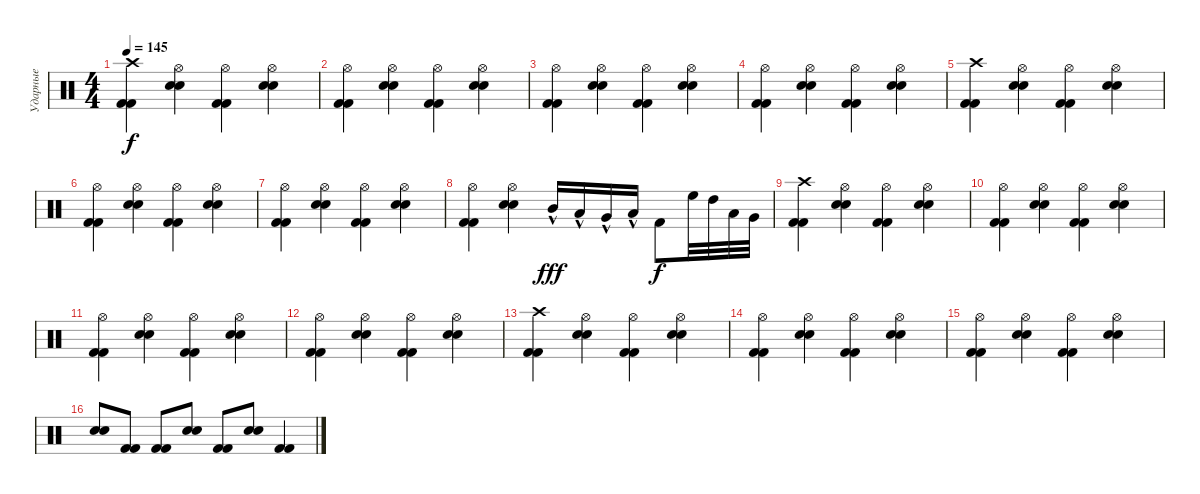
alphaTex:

\track ("Ударные" "Ударные") {instrument percussion}
\staff {score}
\articulation defaults
\ts (4 4)
\tempo 145
\clef neutral
\ks c
("Crash high (hit)" "Kick (hit) 2" "Kick (hit) 2").4{dy f} ("Hi-Hat (open)" "Electric Snare (hit)" "Electric Snare (hit)").4 ("Hi-Hat (open)" "Kick (hit) 2" "Kick (hit) 2").4 ("Hi-Hat (open)" "Electric Snare (hit)" "Electric Snare (hit)").4 |
("Hi-Hat (open)" "Kick (hit) 2" "Kick (hit) 2").4 ("Hi-Hat (open)" "Electric Snare (hit)" "Electric Snare (hit)").4 ("Hi-Hat (open)" "Kick (hit) 2" "Kick (hit) 2").4 ("Hi-Hat (open)" "Electric Snare (hit)" "Electric Snare (hit)").4 |
("Hi-Hat (open)" "Kick (hit) 2" "Kick (hit) 2").4 ("Hi-Hat (open)" "Electric Snare (hit)" "Electric Snare (hit)").4 ("Hi-Hat (open)" "Kick (hit) 2" "Kick (hit) 2").4 ("Hi-Hat (open)" "Electric Snare (hit)" "Electric Snare (hit)").4 |
("Hi-Hat (open)" "Kick (hit) 2" "Kick (hit) 2").4 ("Hi-Hat (open)" "Electric Snare (hit)" "Electric Snare (hit)").4 ("Hi-Hat (open)" "Kick (hit) 2" "Kick (hit) 2").4 ("Hi-Hat (open)" "Electric Snare (hit)" "Electric Snare (hit)").4 |
("Crash high (hit)" "Kick (hit) 2" "Kick (hit) 2").4 ("Hi-Hat (open)" "Electric Snare (hit)" "Electric Snare (hit)").4 ("Hi-Hat (open)" "Kick (hit) 2" "Kick (hit) 2").4 ("Hi-Hat (open)" "Electric Snare (hit)" "Electric Snare (hit)").4 |
("Hi-Hat (open)" "Kick (hit) 2" "Kick (hit) 2").4 ("Hi-Hat (open)" "Electric Snare (hit)" "Electric Snare (hit)").4 ("Hi-Hat (open)" "Kick (hit) 2" "Kick (hit) 2").4 ("Hi-Hat (open)" "Electric Snare (hit)" "Electric Snare (hit)").4 |
("Hi-Hat (open)" "Kick (hit) 2" "Kick (hit) 2").4 ("Hi-Hat (open)" "Electric Snare (hit)" "Electric Snare (hit)").4 ("Hi-Hat (open)" "Kick (hit) 2" "Kick (hit) 2").4 ("Hi-Hat (open)" "Electric Snare (hit)" "Electric Snare (hit)").4 |
("Hi-Hat (open)" "Kick (hit) 2" "Kick (hit) 2").4 ("Hi-Hat (open)" "Electric Snare (hit)" "Electric Snare (hit)").4 "Mid Tom (hit)"{hac}.16{dy fff} "Low Tom (hit)"{hac}.16 "Very Low Tom (hit)"{hac}.16 "Low Floor Tom (hit)"{hac}.16 "Kick (hit) 2".8{dy f} "High Floor Tom (hit)".32 "High Tom (hit)".32 "Low Tom (hit)".32 "Very Low Tom (hit)".32 |
("Crash high (hit)" "Kick (hit) 2" "Kick (hit) 2").4 ("Hi-Hat (open)" "Electric Snare (hit)" "Electric Snare (hit)").4 ("Hi-Hat (open)" "Kick (hit) 2" "Kick (hit) 2").4 ("Hi-Hat (open)" "Electric Snare (hit)" "Electric Snare (hit)").4 |
("Hi-Hat (open)" "Kick (hit) 2" "Kick (hit) 2").4 ("Hi-Hat (open)" "Electric Snare (hit)" "Electric Snare (hit)").4 ("Hi-Hat (open)" "Kick (hit) 2" "Kick (hit) 2").4 ("Hi-Hat (open)" "Electric Snare (hit)" "Electric Snare (hit)").4 |
("Hi-Hat (open)" "Kick (hit) 2" "Kick (hit) 2").4 ("Hi-Hat (open)" "Electric Snare (hit)" "Electric Snare (hit)").4 ("Hi-Hat (open)" "Kick (hit) 2" "Kick (hit) 2").4 ("Hi-Hat (open)" "Electric Snare (hit)" "Electric Snare (hit)").4 |
("Hi-Hat (open)" "Kick (hit) 2" "Kick (hit) 2").4 ("Hi-Hat (open)" "Electric Snare (hit)" "Electric Snare (hit)").4 ("Hi-Hat (open)" "Kick (hit) 2" "Kick (hit) 2").4 ("Hi-Hat (open)" "Electric Snare (hit)" "Electric Snare (hit)").4 |
("Crash high (hit)" "Kick (hit) 2" "Kick (hit) 2").4 ("Hi-Hat (open)" "Electric Snare (hit)" "Electric Snare (hit)").4 ("Hi-Hat (open)" "Kick (hit) 2" "Kick (hit) 2").4 ("Hi-Hat (open)" "Electric Snare (hit)" "Electric Snare (hit)").4 |
("Hi-Hat (open)" "Kick (hit) 2" "Kick (hit) 2").4 ("Hi-Hat (open)" "Electric Snare (hit)" "Electric Snare (hit)").4 ("Hi-Hat (open)" "Kick (hit) 2" "Kick (hit) 2").4 ("Hi-Hat (open)" "Electric Snare (hit)" "Electric Snare (hit)").4 |
("Hi-Hat (open)" "Kick (hit) 2" "Kick (hit) 2").4 ("Hi-Hat (open)" "Electric Snare (hit)" "Electric Snare (hit)").4 ("Hi-Hat (open)" "Kick (hit) 2" "Kick (hit) 2").4 ("Hi-Hat (open)" "Electric Snare (hit)" "Electric Snare (hit)").4 |
("Electric Snare (hit)" "Electric Snare (hit)").8 ("Kick (hit) 2" "Kick (hit) 2").8 ("Kick (hit) 2" "Kick (hit) 2").8 ("Electric Snare (hit)" "Electric Snare (hit)").8 ("Kick (hit) 2" "Kick (hit) 2").8 ("Electric Snare (hit)" "Electric Snare (hit)").8 ("Kick (hit) 2" "Kick (hit) 2").4
